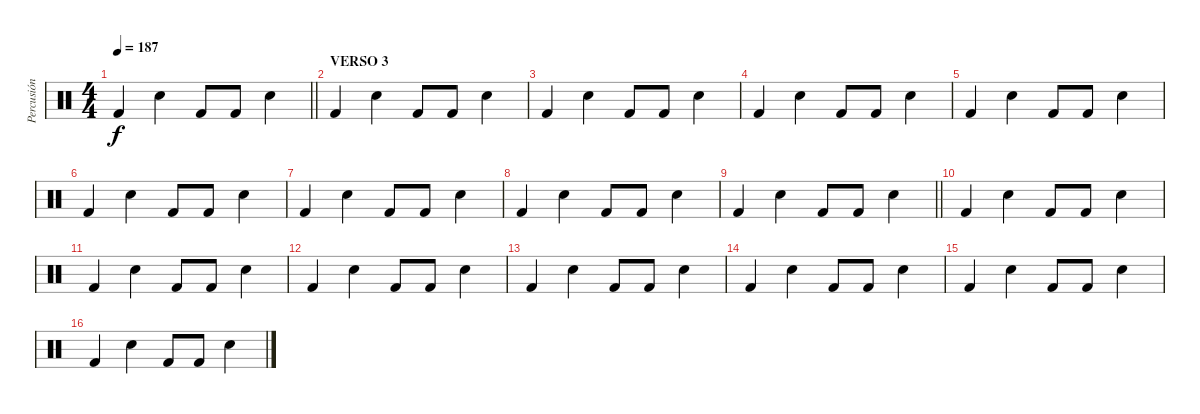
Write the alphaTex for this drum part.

\track ("Percusión" "Percusión") {instrument percussion}
\staff {score}
\articulation defaults
\ts (4 4)
\tempo 187
\clef neutral
\barLineRight lightlight
\ks c "Kick (hit) 2".4{dy f} "Snare (hit) 2".4 "Kick (hit) 2".8 "Kick (hit) 2".8 "Snare (hit) 2".4
|
\section ("" "VERSO 3")
"Kick (hit) 2".4 "Snare (hit) 2".4 "Kick (hit) 2".8 "Kick (hit) 2".8 "Snare (hit) 2".4 |
"Kick (hit) 2".4 "Snare (hit) 2".4 "Kick (hit) 2".8 "Kick (hit) 2".8 "Snare (hit) 2".4 |
"Kick (hit) 2".4 "Snare (hit) 2".4 "Kick (hit) 2".8 "Kick (hit) 2".8 "Snare (hit) 2".4 |
"Kick (hit) 2".4 "Snare (hit) 2".4 "Kick (hit) 2".8 "Kick (hit) 2".8 "Snare (hit) 2".4 |
"Kick (hit) 2".4 "Snare (hit) 2".4 "Kick (hit) 2".8 "Kick (hit) 2".8 "Snare (hit) 2".4 |
"Kick (hit) 2".4 "Snare (hit) 2".4 "Kick (hit) 2".8 "Kick (hit) 2".8 "Snare (hit) 2".4 |
"Kick (hit) 2".4 "Snare (hit) 2".4 "Kick (hit) 2".8 "Kick (hit) 2".8 "Snare (hit) 2".4 |
\barLineRight lightlight "Kick (hit) 2".4 "Snare (hit) 2".4 "Kick (hit) 2".8 "Kick (hit) 2".8 "Snare (hit) 2".4
|
"Kick (hit) 2".4 "Snare (hit) 2".4 "Kick (hit) 2".8 "Kick (hit) 2".8 "Snare (hit) 2".4 |
"Kick (hit) 2".4 "Snare (hit) 2".4 "Kick (hit) 2".8 "Kick (hit) 2".8 "Snare (hit) 2".4 |
"Kick (hit) 2".4 "Snare (hit) 2".4 "Kick (hit) 2".8 "Kick (hit) 2".8 "Snare (hit) 2".4 |
"Kick (hit) 2".4 "Snare (hit) 2".4 "Kick (hit) 2".8 "Kick (hit) 2".8 "Snare (hit) 2".4 |
"Kick (hit) 2".4 "Snare (hit) 2".4 "Kick (hit) 2".8 "Kick (hit) 2".8 "Snare (hit) 2".4 |
"Kick (hit) 2".4 "Snare (hit) 2".4 "Kick (hit) 2".8 "Kick (hit) 2".8 "Snare (hit) 2".4 |
"Kick (hit) 2".4 "Snare (hit) 2".4 "Kick (hit) 2".8 "Kick (hit) 2".8 "Snare (hit) 2".4
